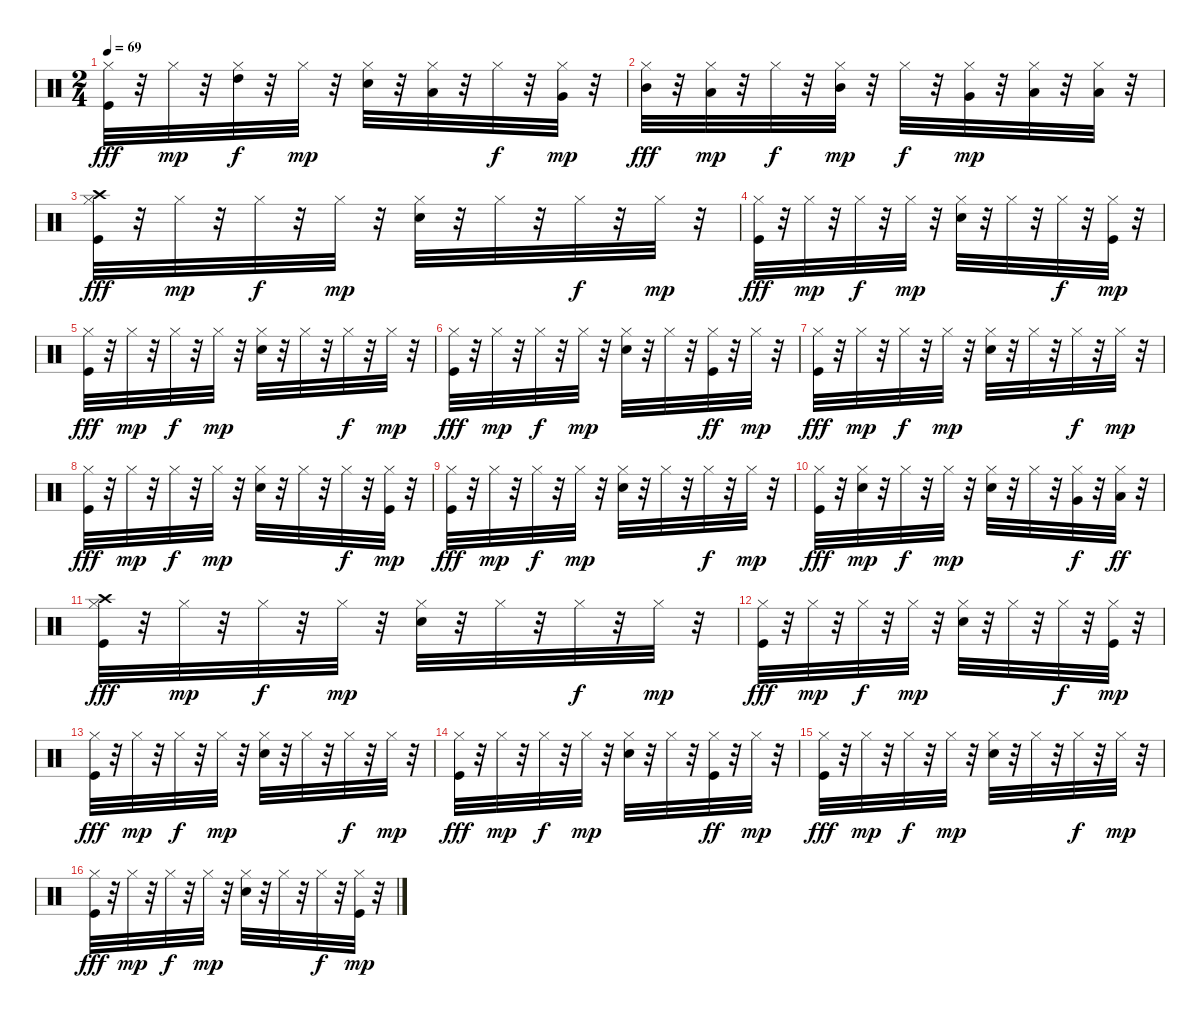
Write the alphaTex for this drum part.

\track "" {instrument percussion}
\staff {score}
\articulation defaults
\ts (2 4)
\tempo 69
\clef neutral
\ks c
("Kick (hit)" "Hi-Hat (closed)").32{dy fff} r.32 "Hi-Hat (closed)".32{dy mp} r.32 ("Hi-Hat (closed)" "High Tom (hit)").32{dy f} r.32 "Hi-Hat (closed)".32{dy mp} r.32 ("Metronome (bell)" "Hi-Hat (closed)").32 r.32 ("Hi-Hat (closed)" "Low Tom (hit)").32 r.32 "Hi-Hat (closed)".32{dy f} r.32 ("Hi-Hat (closed)" "Very Low Tom (hit)").32{dy mp} r.32 |
("Hi-Hat (closed)" "Mid Tom (hit)").32{dy fff} r.32 ("Hi-Hat (closed)" "Low Tom (hit)").32{dy mp} r.32 "Hi-Hat (closed)".32{dy f} r.32 ("Hi-Hat (closed)" "Mid Tom (hit)").32{dy mp} r.32 "Hi-Hat (closed)".32{dy f} r.32 ("Very Low Tom (hit)" "Hi-Hat (closed)").32{dy mp} r.32 ("Low Floor Tom (hit)" "Hi-Hat (closed)").32 r.32 ("Low Floor Tom (hit)" "Hi-Hat (closed)").32 r.32 |
("Crash high (hit)" "Hi-Hat (closed)" "Kick (hit)").32{dy fff} r.32 "Hi-Hat (closed)".32{dy mp} r.32 "Hi-Hat (closed)".32{dy f} r.32 "Hi-Hat (closed)".32{dy mp} r.32 ("Metronome (bell)" "Hi-Hat (closed)").32 r.32 "Hi-Hat (closed)".32 r.32 "Hi-Hat (closed)".32{dy f} r.32 "Hi-Hat (closed)".32{dy mp} r.32 |
("Kick (hit)" "Hi-Hat (closed)").32{dy fff} r.32 "Hi-Hat (closed)".32{dy mp} r.32 "Hi-Hat (closed)".32{dy f} r.32 "Hi-Hat (closed)".32{dy mp} r.32 ("Metronome (bell)" "Hi-Hat (closed)").32 r.32 "Hi-Hat (closed)".32 r.32 "Hi-Hat (closed)".32{dy f} r.32 ("Kick (hit)" "Hi-Hat (closed)").32{dy mp} r.32 |
("Hi-Hat (closed)" "Kick (hit)").32{dy fff} r.32 "Hi-Hat (closed)".32{dy mp} r.32 "Hi-Hat (closed)".32{dy f} r.32 "Hi-Hat (closed)".32{dy mp} r.32 ("Metronome (bell)" "Hi-Hat (closed)").32 r.32 "Hi-Hat (closed)".32 r.32 "Hi-Hat (closed)".32{dy f} r.32 "Hi-Hat (closed)".32{dy mp} r.32 |
("Kick (hit)" "Hi-Hat (closed)").32{dy fff} r.32 "Hi-Hat (closed)".32{dy mp} r.32 "Hi-Hat (closed)".32{dy f} r.32 "Hi-Hat (closed)".32{dy mp} r.32 ("Metronome (bell)" "Hi-Hat (closed)").32 r.32 "Hi-Hat (closed)".32 r.32 ("Hi-Hat (closed)" "Kick (hit)").32{dy ff} r.32 "Hi-Hat (closed)".32{dy mp} r.32 |
("Hi-Hat (closed)" "Kick (hit)").32{dy fff} r.32 "Hi-Hat (closed)".32{dy mp} r.32 "Hi-Hat (closed)".32{dy f} r.32 "Hi-Hat (closed)".32{dy mp} r.32 ("Metronome (bell)" "Hi-Hat (closed)").32 r.32 "Hi-Hat (closed)".32 r.32 "Hi-Hat (closed)".32{dy f} r.32 "Hi-Hat (closed)".32{dy mp} r.32 |
("Kick (hit)" "Hi-Hat (closed)").32{dy fff} r.32 "Hi-Hat (closed)".32{dy mp} r.32 "Hi-Hat (closed)".32{dy f} r.32 "Hi-Hat (closed)".32{dy mp} r.32 ("Metronome (bell)" "Hi-Hat (closed)").32 r.32 "Hi-Hat (closed)".32 r.32 "Hi-Hat (closed)".32{dy f} r.32 ("Kick (hit)" "Hi-Hat (closed)").32{dy mp} r.32 |
("Hi-Hat (closed)" "Kick (hit)").32{dy fff} r.32 "Hi-Hat (closed)".32{dy mp} r.32 "Hi-Hat (closed)".32{dy f} r.32 "Hi-Hat (closed)".32{dy mp} r.32 ("Metronome (bell)" "Hi-Hat (closed)").32 r.32 "Hi-Hat (closed)".32 r.32 "Hi-Hat (closed)".32{dy f} r.32 "Hi-Hat (closed)".32{dy mp} r.32 |
("Kick (hit)" "Hi-Hat (closed)").32{dy fff} r.32 ("Hi-Hat (closed)" "Metronome (bell)").32{dy mp} r.32 "Hi-Hat (closed)".32{dy f} r.32 "Hi-Hat (closed)".32{dy mp} r.32 ("Metronome (bell)" "Hi-Hat (closed)").32 r.32 "Hi-Hat (closed)".32 r.32 ("Hi-Hat (closed)" "Very Low Tom (hit)").32{dy f} r.32 ("Hi-Hat (closed)" "Low Floor Tom (hit)").32{dy ff} r.32 |
("Crash high (hit)" "Hi-Hat (closed)" "Kick (hit)").32{dy fff} r.32 "Hi-Hat (closed)".32{dy mp} r.32 "Hi-Hat (closed)".32{dy f} r.32 "Hi-Hat (closed)".32{dy mp} r.32 ("Metronome (bell)" "Hi-Hat (closed)").32 r.32 "Hi-Hat (closed)".32 r.32 "Hi-Hat (closed)".32{dy f} r.32 "Hi-Hat (closed)".32{dy mp} r.32 |
("Kick (hit)" "Hi-Hat (closed)").32{dy fff} r.32 "Hi-Hat (closed)".32{dy mp} r.32 "Hi-Hat (closed)".32{dy f} r.32 "Hi-Hat (closed)".32{dy mp} r.32 ("Metronome (bell)" "Hi-Hat (closed)").32 r.32 "Hi-Hat (closed)".32 r.32 "Hi-Hat (closed)".32{dy f} r.32 ("Kick (hit)" "Hi-Hat (closed)").32{dy mp} r.32 |
("Hi-Hat (closed)" "Kick (hit)").32{dy fff} r.32 "Hi-Hat (closed)".32{dy mp} r.32 "Hi-Hat (closed)".32{dy f} r.32 "Hi-Hat (closed)".32{dy mp} r.32 ("Metronome (bell)" "Hi-Hat (closed)").32 r.32 "Hi-Hat (closed)".32 r.32 "Hi-Hat (closed)".32{dy f} r.32 "Hi-Hat (closed)".32{dy mp} r.32 |
("Kick (hit)" "Hi-Hat (closed)").32{dy fff} r.32 "Hi-Hat (closed)".32{dy mp} r.32 "Hi-Hat (closed)".32{dy f} r.32 "Hi-Hat (closed)".32{dy mp} r.32 ("Metronome (bell)" "Hi-Hat (closed)").32 r.32 "Hi-Hat (closed)".32 r.32 ("Hi-Hat (closed)" "Kick (hit)").32{dy ff} r.32 "Hi-Hat (closed)".32{dy mp} r.32 |
("Hi-Hat (closed)" "Kick (hit)").32{dy fff} r.32 "Hi-Hat (closed)".32{dy mp} r.32 "Hi-Hat (closed)".32{dy f} r.32 "Hi-Hat (closed)".32{dy mp} r.32 ("Metronome (bell)" "Hi-Hat (closed)").32 r.32 "Hi-Hat (closed)".32 r.32 "Hi-Hat (closed)".32{dy f} r.32 "Hi-Hat (closed)".32{dy mp} r.32 |
("Kick (hit)" "Hi-Hat (closed)").32{dy fff} r.32 "Hi-Hat (closed)".32{dy mp} r.32 "Hi-Hat (closed)".32{dy f} r.32 "Hi-Hat (closed)".32{dy mp} r.32 ("Metronome (bell)" "Hi-Hat (closed)").32 r.32 "Hi-Hat (closed)".32 r.32 "Hi-Hat (closed)".32{dy f} r.32 ("Kick (hit)" "Hi-Hat (closed)").32{dy mp} r.32
